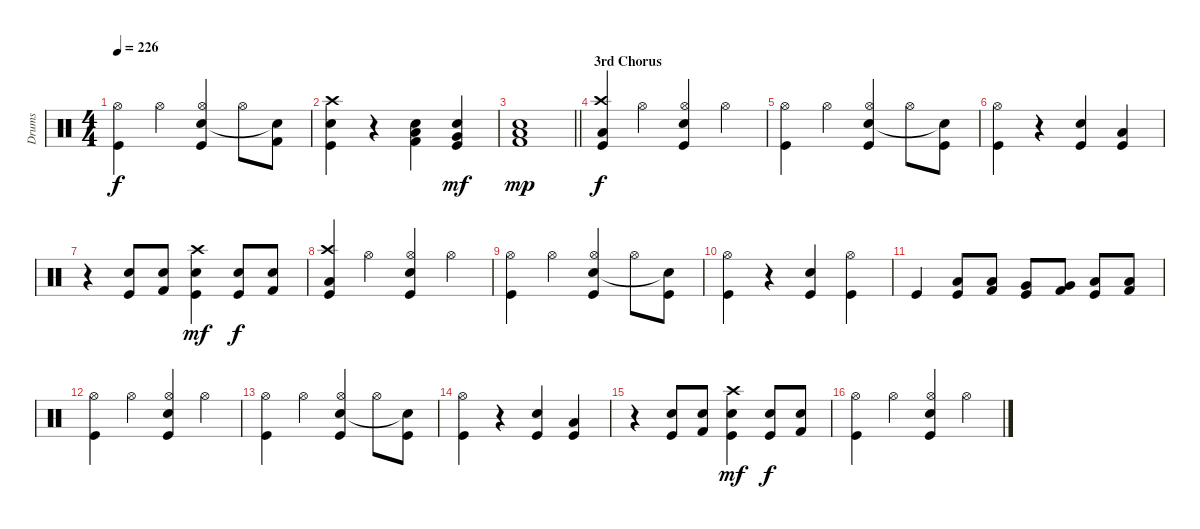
\track ("Drums" "Drums") {instrument percussion}
\staff {score}
\articulation defaults
\ts (4 4)
\tempo 226
\clef neutral
\ks c
("Kick (hit)" "Hi-Hat (open)").4{dy f} "Hi-Hat (open)".4 ("Kick (hit)" "Snare (hit) 2" "Hi-Hat (open)").4 "Hi-Hat (open)".8 ("Kick (hit) 2" "Snare (hit)"{t}).8 |
("Kick (hit)" "Snare (hit) 2" "Crash high (hit)").4 r.4 ("Kick (hit) 2" "Snare (hit) 2" "Low Tom (hit)").4 ("Kick (hit)" "Electric Snare (hit)" "Very Low Tom (hit)").4{dy mf} |
\barLineRight lightlight
("Kick (hit) 2" "Electric Snare (hit)" "Low Floor Tom (hit)").1{dy mp} |
\section ("" "3rd Chorus")
("Kick (hit)" "Low Tom (hit)" "Crash high (hit)").4{dy f} "Hi-Hat (open)".4 ("Kick (hit)" "Snare (hit) 2" "Hi-Hat (open)").4 "Hi-Hat (open)".4 |
("Kick (hit)" "Hi-Hat (open)").4 "Hi-Hat (open)".4 ("Kick (hit)" "Snare (hit) 2" "Hi-Hat (open)").4 "Hi-Hat (open)".8 ("Kick (hit)" "Snare (hit)"{t}).8 |
("Kick (hit)" "Hi-Hat (open)").4 r.4 ("Kick (hit)" "Snare (hit) 2").4 ("Kick (hit)" "Low Floor Tom (hit)").4 |
r.4 ("Kick (hit)" "Snare (hit) 2").8 ("Kick (hit) 2" "Electric Snare (hit)").8 ("Kick (hit)" "Snare (hit) 2" "Crash high (hit)").4{dy mf} ("Kick (hit)" "Snare (hit) 2").8{dy f} ("Kick (hit) 2" "Electric Snare (hit)").8 |
("Kick (hit)" "Low Tom (hit)" "Crash high (hit)").4 "Hi-Hat (open)".4 ("Kick (hit)" "Snare (hit) 2" "Hi-Hat (open)").4 "Hi-Hat (open)".4 |
("Kick (hit)" "Hi-Hat (open)").4 "Hi-Hat (open)".4 ("Kick (hit)" "Snare (hit) 2" "Hi-Hat (open)").4 "Hi-Hat (open)".8 ("Kick (hit)" "Snare (hit)"{t}).8 |
("Kick (hit)" "Hi-Hat (open)").4 r.4 ("Kick (hit)" "Snare (hit) 2").4 ("Kick (hit)" "Hi-Hat (open)").4 |
"Kick (hit)".4 ("Kick (hit)" "Low Floor Tom (hit)").8 ("Kick (hit) 2" "Low Floor Tom (hit)").8 ("Kick (hit)" "Very Low Tom (hit)").8 ("Kick (hit) 2" "Very Low Tom (hit)").8 ("Kick (hit)" "Low Tom (hit)").8 ("Kick (hit) 2" "Low Tom (hit)").8 |
("Kick (hit)" "Hi-Hat (open)").4 "Hi-Hat (open)".4 ("Kick (hit)" "Snare (hit) 2" "Hi-Hat (open)").4 "Hi-Hat (open)".4 |
("Kick (hit)" "Hi-Hat (open)").4 "Hi-Hat (open)".4 ("Kick (hit)" "Snare (hit) 2" "Hi-Hat (open)").4 "Hi-Hat (open)".8 ("Kick (hit)" "Snare (hit)"{t}).8 |
("Kick (hit)" "Hi-Hat (open)").4 r.4 ("Kick (hit)" "Snare (hit) 2").4 ("Kick (hit)" "Low Floor Tom (hit)").4 |
r.4 ("Kick (hit)" "Snare (hit) 2").8 ("Kick (hit) 2" "Electric Snare (hit)").8 ("Kick (hit)" "Snare (hit) 2" "Crash high (hit)").4{dy mf} ("Kick (hit)" "Snare (hit) 2").8{dy f} ("Kick (hit) 2" "Electric Snare (hit)").8 |
("Kick (hit)" "Hi-Hat (open)").4 "Hi-Hat (open)".4 ("Kick (hit)" "Snare (hit) 2" "Hi-Hat (open)").4 "Hi-Hat (open)".4
